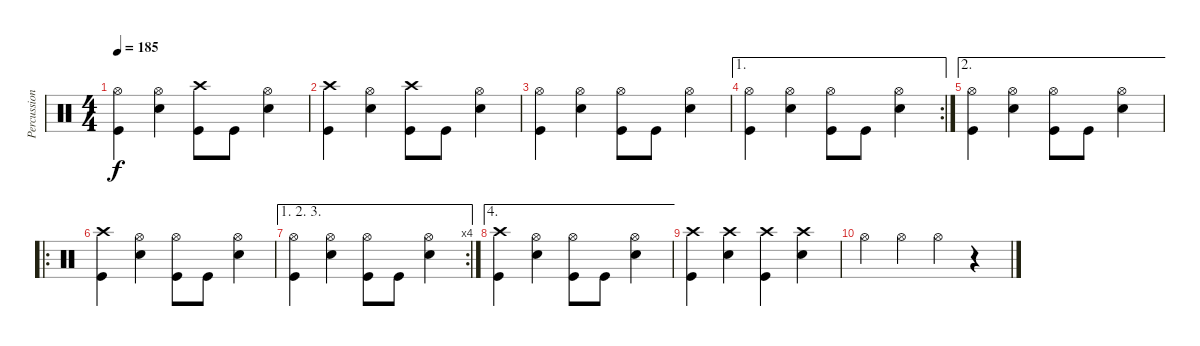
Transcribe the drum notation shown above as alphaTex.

\track ("Percussion" "Percussion") {instrument percussion}
\staff {score}
\articulation defaults
\ts (4 4)
\tempo 185
\clef neutral
\ks c
("Hi-Hat (open)" "Kick (hit)").4{dy f} ("Hi-Hat (open)" "Snare (hit) 2").4 ("Crash high (hit)" "Kick (hit)").8 "Kick (hit)".8 ("Hi-Hat (open)" "Snare (hit) 2").4 |
("Crash high (hit)" "Kick (hit)").4 ("Hi-Hat (open)" "Snare (hit) 2").4 ("Crash high (hit)" "Kick (hit)").8 "Kick (hit)".8 ("Hi-Hat (open)" "Snare (hit) 2").4 |
("Hi-Hat (open)" "Kick (hit)").4 ("Hi-Hat (open)" "Snare (hit) 2").4 ("Hi-Hat (open)" "Kick (hit)").8 "Kick (hit)".8 ("Hi-Hat (open)" "Snare (hit) 2").4 |
\ae 1
\rc 2
("Hi-Hat (open)" "Kick (hit)").4 ("Hi-Hat (open)" "Snare (hit) 2").4 ("Hi-Hat (open)" "Kick (hit)").8 "Kick (hit)".8 ("Hi-Hat (open)" "Snare (hit) 2").4 |
\ae 2
("Hi-Hat (open)" "Kick (hit)").4 ("Hi-Hat (open)" "Snare (hit) 2").4 ("Hi-Hat (open)" "Kick (hit)").8 "Kick (hit)".8 ("Hi-Hat (open)" "Snare (hit) 2").4 |
\ro
("Crash high (hit)" "Kick (hit)").4 ("Hi-Hat (open)" "Snare (hit) 2").4 ("Hi-Hat (open)" "Kick (hit)").8 "Kick (hit)".8 ("Hi-Hat (open)" "Snare (hit) 2").4 |
\ae (1 2 3)
\rc 4
("Hi-Hat (open)" "Kick (hit)").4 ("Hi-Hat (open)" "Snare (hit) 2").4 ("Hi-Hat (open)" "Kick (hit)").8 "Kick (hit)".8 ("Hi-Hat (open)" "Snare (hit) 2").4 |
\ae 4
("Crash high (hit)" "Kick (hit)").4 ("Hi-Hat (open)" "Snare (hit) 2").4 ("Hi-Hat (open)" "Kick (hit)").8 "Kick (hit)".8 ("Hi-Hat (open)" "Snare (hit) 2").4 |
("Kick (hit)" "Crash high (hit)").4 ("Crash high (hit)" "Snare (hit) 2").4 ("Crash high (hit)" "Kick (hit)").4 ("Crash high (hit)" "Snare (hit) 2").4 |
"Hi-Hat (open)".4 "Hi-Hat (open)".4 "Hi-Hat (open)".4 r.4
